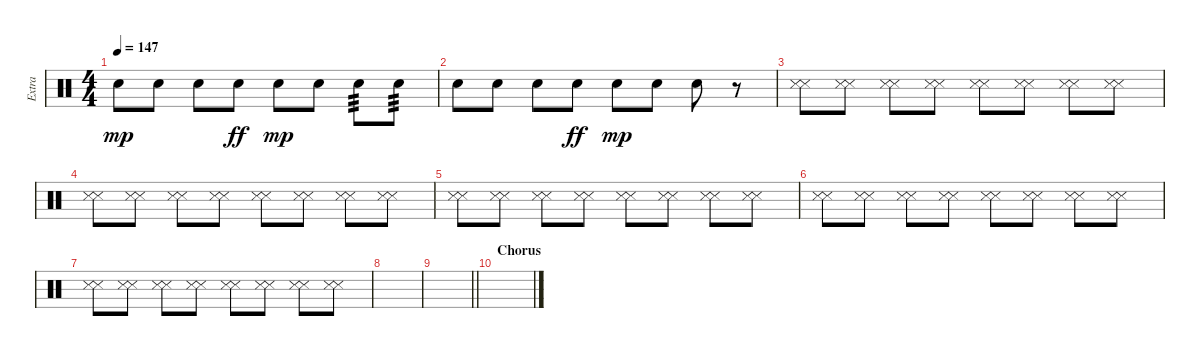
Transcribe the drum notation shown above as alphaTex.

\track ("Extra" "Extra") {instrument percussion}
\staff {score}
\articulation defaults
\ts (4 4)
\tempo 147
\clef neutral
\ks c "Electric Snare (hit)".8{dy mp} "Electric Snare (hit)".8 "Electric Snare (hit)".8 "Electric Snare (hit)".8{dy ff} "Electric Snare (hit)".8{dy mp} "Electric Snare (hit)".8 "Electric Snare (hit)".8{tp 3} "Electric Snare (hit)".8{tp 3}
|
"Electric Snare (hit)".8 "Electric Snare (hit)".8 "Electric Snare (hit)".8 "Electric Snare (hit)".8{dy ff} "Electric Snare (hit)".8{dy mp} "Electric Snare (hit)".8 "Electric Snare (hit)".8 r.8 |
("Snare (side stick) 3" "Metronome (hit)").8 ("Snare (side stick) 3" "Metronome (hit)").8 ("Snare (side stick) 3" "Metronome (hit)").8 ("Snare (side stick) 3" "Metronome (hit)").8 ("Snare (side stick) 3" "Metronome (hit)").8 ("Snare (side stick) 3" "Metronome (hit)").8 ("Snare (side stick) 3" "Metronome (hit)").8 ("Snare (side stick) 3" "Metronome (hit)").8 |
("Snare (side stick) 3" "Metronome (hit)").8 ("Snare (side stick) 3" "Metronome (hit)").8 ("Snare (side stick) 3" "Metronome (hit)").8 ("Snare (side stick) 3" "Metronome (hit)").8 ("Snare (side stick) 3" "Metronome (hit)").8 ("Snare (side stick) 3" "Metronome (hit)").8 ("Snare (side stick) 3" "Metronome (hit)").8 ("Snare (side stick) 3" "Metronome (hit)").8 |
("Snare (side stick) 3" "Metronome (hit)").8 ("Snare (side stick) 3" "Metronome (hit)").8 ("Snare (side stick) 3" "Metronome (hit)").8 ("Snare (side stick) 3" "Metronome (hit)").8 ("Snare (side stick) 3" "Metronome (hit)").8 ("Snare (side stick) 3" "Metronome (hit)").8 ("Snare (side stick) 3" "Metronome (hit)").8 ("Snare (side stick) 3" "Metronome (hit)").8 |
("Snare (side stick) 3" "Metronome (hit)").8 ("Snare (side stick) 3" "Metronome (hit)").8 ("Snare (side stick) 3" "Metronome (hit)").8 ("Snare (side stick) 3" "Metronome (hit)").8 ("Snare (side stick) 3" "Metronome (hit)").8 ("Snare (side stick) 3" "Metronome (hit)").8 ("Snare (side stick) 3" "Metronome (hit)").8 ("Snare (side stick) 3" "Metronome (hit)").8 |
("Snare (side stick) 3" "Metronome (hit)").8 ("Snare (side stick) 3" "Metronome (hit)").8 ("Snare (side stick) 3" "Metronome (hit)").8 ("Snare (side stick) 3" "Metronome (hit)").8 ("Snare (side stick) 3" "Metronome (hit)").8 ("Snare (side stick) 3" "Metronome (hit)").8 ("Snare (side stick) 3" "Metronome (hit)").8 ("Snare (side stick) 3" "Metronome (hit)").8 |
|
\barLineRight lightlight
|
\section ("" "Chorus")
